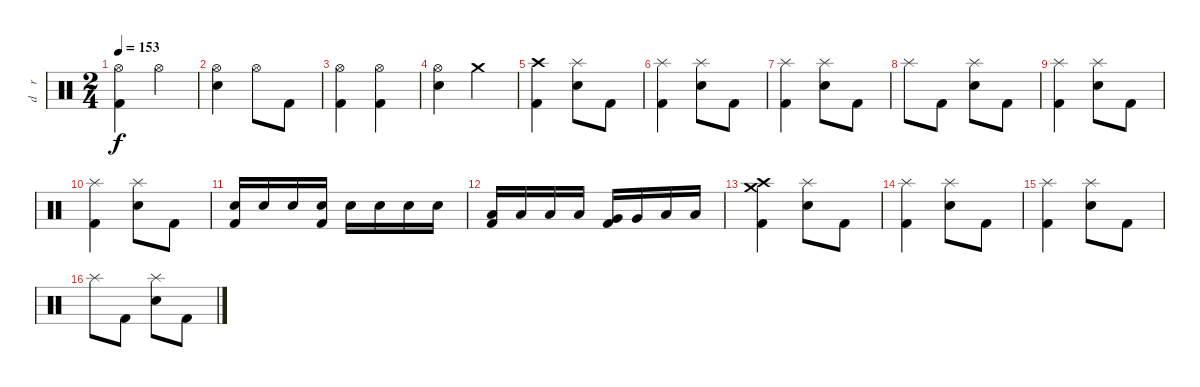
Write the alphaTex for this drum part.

\track ("d    r     u    m    s" "d    r    ") {instrument percussion}
\staff {score}
\articulation defaults
\ts (2 4)
\tempo 153
\clef neutral
\ks c
("Hi-Hat (open)" "Kick (hit) 2").4{dy f} "Hi-Hat (open)".4 |
("Hi-Hat (open)" "Electric Snare (hit)").4 "Hi-Hat (open)".8 "Kick (hit) 2".8 |
("Hi-Hat (open)" "Kick (hit) 2").4 ("Hi-Hat (open)" "Kick (hit) 2").4 |
("Hi-Hat (open)" "Electric Snare (hit)").4 "Crash medium (hit)".4 |
("Crash high (hit)" "Kick (hit) 2").4 ("Splash (hit)" "Electric Snare (hit)").8 "Kick (hit) 2".8 |
("Splash (hit)" "Kick (hit) 2").4 ("Splash (hit)" "Electric Snare (hit)").8 "Kick (hit) 2".8 |
("Splash (hit)" "Kick (hit) 2").4 ("Splash (hit)" "Electric Snare (hit)").8 "Kick (hit) 2".8 |
"Splash (hit)".8 "Kick (hit) 2".8 ("Splash (hit)" "Electric Snare (hit)").8 "Kick (hit) 2".8 |
("Splash (hit)" "Kick (hit) 2").4 ("Splash (hit)" "Electric Snare (hit)").8 "Kick (hit) 2".8 |
("Splash (hit)" "Kick (hit) 2").4 ("Splash (hit)" "Electric Snare (hit)").8 "Kick (hit) 2".8 |
("Electric Snare (hit)" "Kick (hit) 2").16 "Electric Snare (hit)".16 "Electric Snare (hit)".16 ("Electric Snare (hit)" "Kick (hit) 2").16 "Electric Snare (hit)".16 "Electric Snare (hit)".16 "Electric Snare (hit)".16 "Electric Snare (hit)".16 |
("Low Tom (hit)" "Kick (hit) 2").16 "Low Tom (hit)".16 "Low Tom (hit)".16 "Low Tom (hit)".16 ("Very Low Tom (hit)" "Kick (hit) 2").16 "Very Low Tom (hit)".16 "Low Floor Tom (hit)".16 "Low Floor Tom (hit)".16 |
("Crash high (hit)" "Crash medium (hit)" "Kick (hit) 2").4 ("Splash (hit)" "Electric Snare (hit)").8 "Kick (hit) 2".8 |
("Splash (hit)" "Kick (hit) 2").4 ("Splash (hit)" "Electric Snare (hit)").8 "Kick (hit) 2".8 |
("Splash (hit)" "Kick (hit) 2").4 ("Splash (hit)" "Electric Snare (hit)").8 "Kick (hit) 2".8 |
"Splash (hit)".8 "Kick (hit) 2".8 ("Splash (hit)" "Electric Snare (hit)").8 "Kick (hit) 2".8
